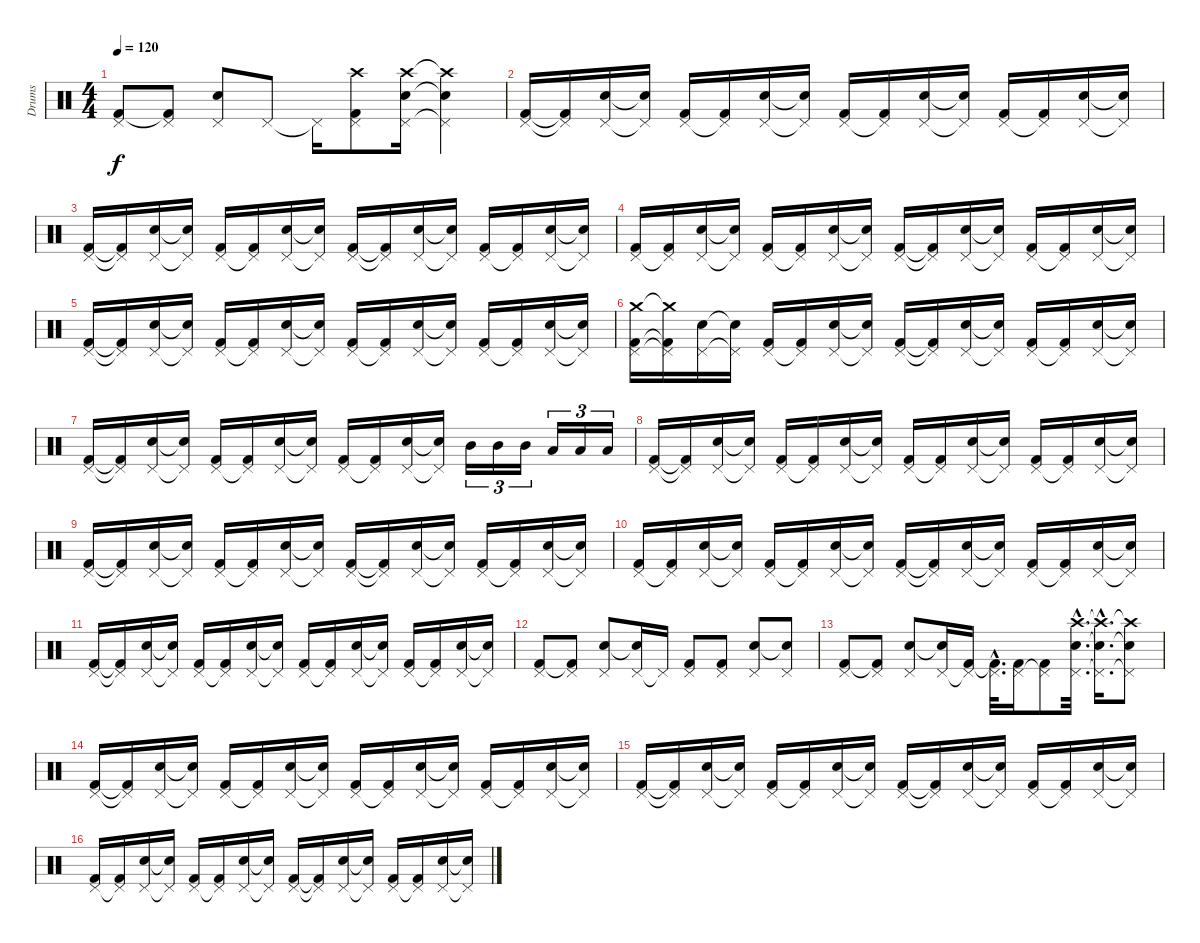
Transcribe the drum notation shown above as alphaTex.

\track ("Drums" "Drums") {instrument percussion}
\staff {score}
\articulation defaults
\ts (4 4)
\tempo 120
\clef neutral
\ks c
("Pedal Hi-Hat (hit)" "Kick (hit) 2").8{dy f} ("Pedal Hi-Hat (hit)" "Kick (hit) 2"{t}).8 ("Pedal Hi-Hat (hit)" "Snare (hit) 2").8 "Pedal Hi-Hat (hit)".8 "Pedal Hi-Hat (hit)"{t}.16 ("Pedal Hi-Hat (hit)" "Crash high (hit)" "Kick (hit) 2").8 ("Pedal Hi-Hat (hit)" "Crash high (hit)" "Snare (hit) 2").16 ("Pedal Hi-Hat (hit)"{t} "Crash high (hit)"{t} "Snare (hit) 2"{t}).4 |
("Pedal Hi-Hat (hit)" "Kick (hit) 2").16 ("Pedal Hi-Hat (hit)"{t} "Kick (hit) 2"{t}).16 ("Pedal Hi-Hat (hit)" "Snare (hit) 2").16 ("Pedal Hi-Hat (hit)"{t} "Snare (hit) 2"{t}).16 ("Pedal Hi-Hat (hit)" "Kick (hit) 2").16 ("Pedal Hi-Hat (hit)"{t} "Kick (hit) 2").16 ("Pedal Hi-Hat (hit)" "Snare (hit) 2").16 ("Pedal Hi-Hat (hit)"{t} "Snare (hit) 2"{t}).16 ("Pedal Hi-Hat (hit)" "Kick (hit) 2").16 ("Pedal Hi-Hat (hit)"{t} "Kick (hit) 2").16 ("Pedal Hi-Hat (hit)" "Snare (hit) 2").16 ("Pedal Hi-Hat (hit)"{t} "Snare (hit) 2"{t}).16 ("Pedal Hi-Hat (hit)" "Kick (hit) 2").16 ("Pedal Hi-Hat (hit)"{t} "Kick (hit) 2").16 ("Pedal Hi-Hat (hit)" "Snare (hit) 2").16 ("Pedal Hi-Hat (hit)"{t} "Snare (hit) 2"{t}).16 |
("Pedal Hi-Hat (hit)" "Kick (hit) 2").16 ("Pedal Hi-Hat (hit)"{t} "Kick (hit) 2"{t}).16 ("Pedal Hi-Hat (hit)" "Snare (hit) 2").16 ("Pedal Hi-Hat (hit)"{t} "Snare (hit) 2"{t}).16 ("Pedal Hi-Hat (hit)" "Kick (hit) 2").16 ("Pedal Hi-Hat (hit)"{t} "Kick (hit) 2").16 ("Pedal Hi-Hat (hit)" "Snare (hit) 2").16 ("Pedal Hi-Hat (hit)"{t} "Snare (hit) 2"{t}).16 ("Pedal Hi-Hat (hit)" "Kick (hit) 2").16 ("Pedal Hi-Hat (hit)"{t} "Kick (hit) 2"{t}).16 ("Pedal Hi-Hat (hit)" "Snare (hit) 2").16 ("Pedal Hi-Hat (hit)"{t} "Snare (hit) 2"{t}).16 ("Pedal Hi-Hat (hit)" "Kick (hit) 2").16 ("Pedal Hi-Hat (hit)"{t} "Kick (hit) 2").16 ("Pedal Hi-Hat (hit)" "Snare (hit) 2").16 ("Pedal Hi-Hat (hit)"{t} "Snare (hit) 2"{t}).16 |
("Pedal Hi-Hat (hit)" "Kick (hit) 2").16 ("Pedal Hi-Hat (hit)"{t} "Kick (hit) 2").16 ("Pedal Hi-Hat (hit)" "Snare (hit) 2").16 ("Pedal Hi-Hat (hit)"{t} "Snare (hit) 2"{t}).16 ("Pedal Hi-Hat (hit)" "Kick (hit) 2").16 ("Pedal Hi-Hat (hit)"{t} "Kick (hit) 2").16 ("Pedal Hi-Hat (hit)" "Snare (hit) 2").16 ("Pedal Hi-Hat (hit)"{t} "Snare (hit) 2"{t}).16 ("Pedal Hi-Hat (hit)" "Kick (hit) 2").16 ("Pedal Hi-Hat (hit)"{t} "Kick (hit) 2"{t}).16 ("Pedal Hi-Hat (hit)" "Snare (hit) 2").16 ("Pedal Hi-Hat (hit)"{t} "Snare (hit) 2"{t}).16 ("Pedal Hi-Hat (hit)" "Kick (hit) 2").16 ("Pedal Hi-Hat (hit)"{t} "Kick (hit) 2").16 ("Pedal Hi-Hat (hit)" "Snare (hit) 2").16 ("Pedal Hi-Hat (hit)"{t} "Snare (hit) 2"{t}).16 |
("Pedal Hi-Hat (hit)" "Kick (hit) 2").16 ("Pedal Hi-Hat (hit)"{t} "Kick (hit) 2"{t}).16 ("Pedal Hi-Hat (hit)" "Snare (hit) 2").16 ("Pedal Hi-Hat (hit)"{t} "Snare (hit) 2"{t}).16 ("Pedal Hi-Hat (hit)" "Kick (hit) 2").16 ("Pedal Hi-Hat (hit)"{t} "Kick (hit) 2").16 ("Pedal Hi-Hat (hit)" "Snare (hit) 2").16 ("Pedal Hi-Hat (hit)"{t} "Snare (hit) 2"{t}).16 ("Pedal Hi-Hat (hit)" "Kick (hit) 2").16 ("Pedal Hi-Hat (hit)"{t} "Kick (hit) 2").16 ("Pedal Hi-Hat (hit)" "Snare (hit) 2").16 ("Pedal Hi-Hat (hit)"{t} "Snare (hit) 2"{t}).16 ("Pedal Hi-Hat (hit)" "Kick (hit) 2").16 ("Pedal Hi-Hat (hit)"{t} "Kick (hit) 2").16 ("Pedal Hi-Hat (hit)" "Snare (hit) 2").16 ("Pedal Hi-Hat (hit)"{t} "Snare (hit) 2"{t}).16 |
("Pedal Hi-Hat (hit)" "Crash medium (hit)" "Kick (hit) 2").16 ("Pedal Hi-Hat (hit)"{t} "Crash medium (hit)"{t} "Kick (hit) 2"{t}).16 ("Pedal Hi-Hat (hit)" "Snare (hit) 2").16 ("Pedal Hi-Hat (hit)"{t} "Snare (hit) 2"{t}).16 ("Pedal Hi-Hat (hit)" "Kick (hit) 2").16 ("Pedal Hi-Hat (hit)"{t} "Kick (hit) 2").16 ("Pedal Hi-Hat (hit)" "Snare (hit) 2").16 ("Pedal Hi-Hat (hit)"{t} "Snare (hit) 2"{t}).16 ("Pedal Hi-Hat (hit)" "Kick (hit) 2").16 ("Pedal Hi-Hat (hit)"{t} "Kick (hit) 2"{t}).16 ("Pedal Hi-Hat (hit)" "Snare (hit) 2").16 ("Pedal Hi-Hat (hit)"{t} "Snare (hit) 2"{t}).16 ("Pedal Hi-Hat (hit)" "Kick (hit) 2").16 ("Pedal Hi-Hat (hit)"{t} "Kick (hit) 2").16 ("Pedal Hi-Hat (hit)" "Snare (hit) 2").16 ("Pedal Hi-Hat (hit)"{t} "Snare (hit) 2"{t}).16 |
("Pedal Hi-Hat (hit)" "Kick (hit) 2").16 ("Pedal Hi-Hat (hit)"{t} "Kick (hit) 2"{t}).16 ("Pedal Hi-Hat (hit)" "Snare (hit) 2").16 ("Pedal Hi-Hat (hit)"{t} "Snare (hit) 2"{t}).16 ("Pedal Hi-Hat (hit)" "Kick (hit) 2").16 ("Pedal Hi-Hat (hit)"{t} "Kick (hit) 2").16 ("Pedal Hi-Hat (hit)" "Snare (hit) 2").16 ("Pedal Hi-Hat (hit)"{t} "Snare (hit) 2"{t}).16 ("Pedal Hi-Hat (hit)" "Kick (hit) 2").16 ("Pedal Hi-Hat (hit)"{t} "Kick (hit) 2").16 ("Pedal Hi-Hat (hit)" "Snare (hit) 2").16 ("Pedal Hi-Hat (hit)"{t} "Snare (hit) 2"{t}).16 "Mid Tom (hit)".16{tu (3 2)} "Mid Tom (hit)".16{tu (3 2)} "Mid Tom (hit)".16{tu (3 2)} "Low Tom (hit)".16{tu (3 2)} "Low Tom (hit)".16{tu (3 2)} "Low Tom (hit)".16{tu (3 2)} |
("Pedal Hi-Hat (hit)" "Kick (hit) 2").16 ("Pedal Hi-Hat (hit)"{t} "Kick (hit) 2"{t}).16 ("Pedal Hi-Hat (hit)" "Snare (hit) 2").16 ("Pedal Hi-Hat (hit)"{t} "Snare (hit) 2"{t}).16 ("Pedal Hi-Hat (hit)" "Kick (hit) 2").16 ("Pedal Hi-Hat (hit)"{t} "Kick (hit) 2").16 ("Pedal Hi-Hat (hit)" "Snare (hit) 2").16 ("Pedal Hi-Hat (hit)"{t} "Snare (hit) 2"{t}).16 ("Pedal Hi-Hat (hit)" "Kick (hit) 2").16 ("Pedal Hi-Hat (hit)"{t} "Kick (hit) 2").16 ("Pedal Hi-Hat (hit)" "Snare (hit) 2").16 ("Pedal Hi-Hat (hit)"{t} "Snare (hit) 2"{t}).16 ("Pedal Hi-Hat (hit)" "Kick (hit) 2").16 ("Pedal Hi-Hat (hit)"{t} "Kick (hit) 2").16 ("Pedal Hi-Hat (hit)" "Snare (hit) 2").16 ("Pedal Hi-Hat (hit)"{t} "Snare (hit) 2"{t}).16 |
("Pedal Hi-Hat (hit)" "Kick (hit) 2").16 ("Pedal Hi-Hat (hit)"{t} "Kick (hit) 2"{t}).16 ("Pedal Hi-Hat (hit)" "Snare (hit) 2").16 ("Pedal Hi-Hat (hit)"{t} "Snare (hit) 2"{t}).16 ("Pedal Hi-Hat (hit)" "Kick (hit) 2").16 ("Pedal Hi-Hat (hit)"{t} "Kick (hit) 2").16 ("Pedal Hi-Hat (hit)" "Snare (hit) 2").16 ("Pedal Hi-Hat (hit)"{t} "Snare (hit) 2"{t}).16 ("Pedal Hi-Hat (hit)" "Kick (hit) 2").16 ("Pedal Hi-Hat (hit)"{t} "Kick (hit) 2"{t}).16 ("Pedal Hi-Hat (hit)" "Snare (hit) 2").16 ("Pedal Hi-Hat (hit)"{t} "Snare (hit) 2"{t}).16 ("Pedal Hi-Hat (hit)" "Kick (hit) 2").16 ("Pedal Hi-Hat (hit)"{t} "Kick (hit) 2").16 ("Pedal Hi-Hat (hit)" "Snare (hit) 2").16 ("Pedal Hi-Hat (hit)"{t} "Snare (hit) 2"{t}).16 |
("Pedal Hi-Hat (hit)" "Kick (hit) 2").16 ("Pedal Hi-Hat (hit)"{t} "Kick (hit) 2").16 ("Pedal Hi-Hat (hit)" "Snare (hit) 2").16 ("Pedal Hi-Hat (hit)"{t} "Snare (hit) 2"{t}).16 ("Pedal Hi-Hat (hit)" "Kick (hit) 2").16 ("Pedal Hi-Hat (hit)"{t} "Kick (hit) 2").16 ("Pedal Hi-Hat (hit)" "Snare (hit) 2").16 ("Pedal Hi-Hat (hit)"{t} "Snare (hit) 2"{t}).16 ("Pedal Hi-Hat (hit)" "Kick (hit) 2").16 ("Pedal Hi-Hat (hit)"{t} "Kick (hit) 2"{t}).16 ("Pedal Hi-Hat (hit)" "Snare (hit) 2").16 ("Pedal Hi-Hat (hit)"{t} "Snare (hit) 2"{t}).16 ("Pedal Hi-Hat (hit)" "Kick (hit) 2").16 ("Pedal Hi-Hat (hit)"{t} "Kick (hit) 2").16 ("Pedal Hi-Hat (hit)" "Snare (hit) 2").16 ("Pedal Hi-Hat (hit)"{t} "Snare (hit) 2"{t}).16 |
("Pedal Hi-Hat (hit)" "Kick (hit) 2").16 ("Pedal Hi-Hat (hit)"{t} "Kick (hit) 2"{t}).16 ("Pedal Hi-Hat (hit)" "Snare (hit) 2").16 ("Pedal Hi-Hat (hit)"{t} "Snare (hit) 2"{t}).16 ("Pedal Hi-Hat (hit)" "Kick (hit) 2").16 ("Pedal Hi-Hat (hit)"{t} "Kick (hit) 2").16 ("Pedal Hi-Hat (hit)" "Snare (hit) 2").16 ("Pedal Hi-Hat (hit)"{t} "Snare (hit) 2"{t}).16 ("Pedal Hi-Hat (hit)" "Kick (hit) 2").16 ("Pedal Hi-Hat (hit)"{t} "Kick (hit) 2").16 ("Pedal Hi-Hat (hit)" "Snare (hit) 2").16 ("Pedal Hi-Hat (hit)"{t} "Snare (hit) 2"{t}).16 ("Pedal Hi-Hat (hit)" "Kick (hit) 2").16 ("Pedal Hi-Hat (hit)"{t} "Kick (hit) 2").16 ("Pedal Hi-Hat (hit)" "Snare (hit) 2").16 ("Pedal Hi-Hat (hit)"{t} "Snare (hit) 2"{t}).16 |
("Pedal Hi-Hat (hit)" "Kick (hit) 2").8 ("Pedal Hi-Hat (hit)" "Kick (hit) 2"{t}).8 ("Pedal Hi-Hat (hit)" "Snare (hit) 2").8 ("Pedal Hi-Hat (hit)" "Snare (hit) 2"{t}).16 "Pedal Hi-Hat (hit)"{t}.16 ("Pedal Hi-Hat (hit)" "Kick (hit) 2").8 ("Pedal Hi-Hat (hit)" "Kick (hit) 2").8 ("Pedal Hi-Hat (hit)" "Snare (hit) 2").8 ("Pedal Hi-Hat (hit)" "Snare (hit) 2"{t}).8 |
("Pedal Hi-Hat (hit)" "Kick (hit) 2").8 ("Pedal Hi-Hat (hit)" "Kick (hit) 2"{t}).8 ("Pedal Hi-Hat (hit)" "Snare (hit) 2").8 ("Pedal Hi-Hat (hit)" "Snare (hit) 2"{t}).16 ("Pedal Hi-Hat (hit)"{t} "Kick (hit) 2").16 ("Pedal Hi-Hat (hit)"{hac} "Kick (hit) 2"{hac t}).32{d} ("Pedal Hi-Hat (hit)" "Kick (hit) 2").16 ("Pedal Hi-Hat (hit)"{t} "Kick (hit) 2").8 ("Pedal Hi-Hat (hit)"{hac} "Crash high (hit)"{hac} "Snare (hit) 2"{hac}).32{d} ("Pedal Hi-Hat (hit)"{hac t} "Crash high (hit)"{hac t} "Snare (hit) 2"{hac t}).16{d} ("Pedal Hi-Hat (hit)"{t} "Crash high (hit)"{t} "Snare (hit) 2"{t}).8 |
("Pedal Hi-Hat (hit)" "Kick (hit) 2").16 ("Pedal Hi-Hat (hit)"{t} "Kick (hit) 2"{t}).16 ("Pedal Hi-Hat (hit)" "Snare (hit) 2").16 ("Pedal Hi-Hat (hit)"{t} "Snare (hit) 2"{t}).16 ("Pedal Hi-Hat (hit)" "Kick (hit) 2").16 ("Pedal Hi-Hat (hit)"{t} "Kick (hit) 2").16 ("Pedal Hi-Hat (hit)" "Snare (hit) 2").16 ("Pedal Hi-Hat (hit)"{t} "Snare (hit) 2"{t}).16 ("Pedal Hi-Hat (hit)" "Kick (hit) 2").16 ("Pedal Hi-Hat (hit)"{t} "Kick (hit) 2").16 ("Pedal Hi-Hat (hit)" "Snare (hit) 2").16 ("Pedal Hi-Hat (hit)"{t} "Snare (hit) 2"{t}).16 ("Pedal Hi-Hat (hit)" "Kick (hit) 2").16 ("Pedal Hi-Hat (hit)"{t} "Kick (hit) 2").16 ("Pedal Hi-Hat (hit)" "Snare (hit) 2").16 ("Pedal Hi-Hat (hit)"{t} "Snare (hit) 2"{t}).16 |
("Pedal Hi-Hat (hit)" "Kick (hit) 2").16 ("Pedal Hi-Hat (hit)"{t} "Kick (hit) 2"{t}).16 ("Pedal Hi-Hat (hit)" "Snare (hit) 2").16 ("Pedal Hi-Hat (hit)"{t} "Snare (hit) 2"{t}).16 ("Pedal Hi-Hat (hit)" "Kick (hit) 2").16 ("Pedal Hi-Hat (hit)"{t} "Kick (hit) 2").16 ("Pedal Hi-Hat (hit)" "Snare (hit) 2").16 ("Pedal Hi-Hat (hit)"{t} "Snare (hit) 2"{t}).16 ("Pedal Hi-Hat (hit)" "Kick (hit) 2").16 ("Pedal Hi-Hat (hit)"{t} "Kick (hit) 2"{t}).16 ("Pedal Hi-Hat (hit)" "Snare (hit) 2").16 ("Pedal Hi-Hat (hit)"{t} "Snare (hit) 2"{t}).16 ("Pedal Hi-Hat (hit)" "Kick (hit) 2").16 ("Pedal Hi-Hat (hit)"{t} "Kick (hit) 2").16 ("Pedal Hi-Hat (hit)" "Snare (hit) 2").16 ("Pedal Hi-Hat (hit)"{t} "Snare (hit) 2"{t}).16 |
("Pedal Hi-Hat (hit)" "Kick (hit) 2").16 ("Pedal Hi-Hat (hit)"{t} "Kick (hit) 2").16 ("Pedal Hi-Hat (hit)" "Snare (hit) 2").16 ("Pedal Hi-Hat (hit)"{t} "Snare (hit) 2"{t}).16 ("Pedal Hi-Hat (hit)" "Kick (hit) 2").16 ("Pedal Hi-Hat (hit)"{t} "Kick (hit) 2").16 ("Pedal Hi-Hat (hit)" "Snare (hit) 2").16 ("Pedal Hi-Hat (hit)"{t} "Snare (hit) 2"{t}).16 ("Pedal Hi-Hat (hit)" "Kick (hit) 2").16 ("Pedal Hi-Hat (hit)"{t} "Kick (hit) 2"{t}).16 ("Pedal Hi-Hat (hit)" "Snare (hit) 2").16 ("Pedal Hi-Hat (hit)"{t} "Snare (hit) 2"{t}).16 ("Pedal Hi-Hat (hit)" "Kick (hit) 2").16 ("Pedal Hi-Hat (hit)"{t} "Kick (hit) 2").16 ("Pedal Hi-Hat (hit)" "Snare (hit) 2").16 ("Pedal Hi-Hat (hit)"{t} "Snare (hit) 2"{t}).16
